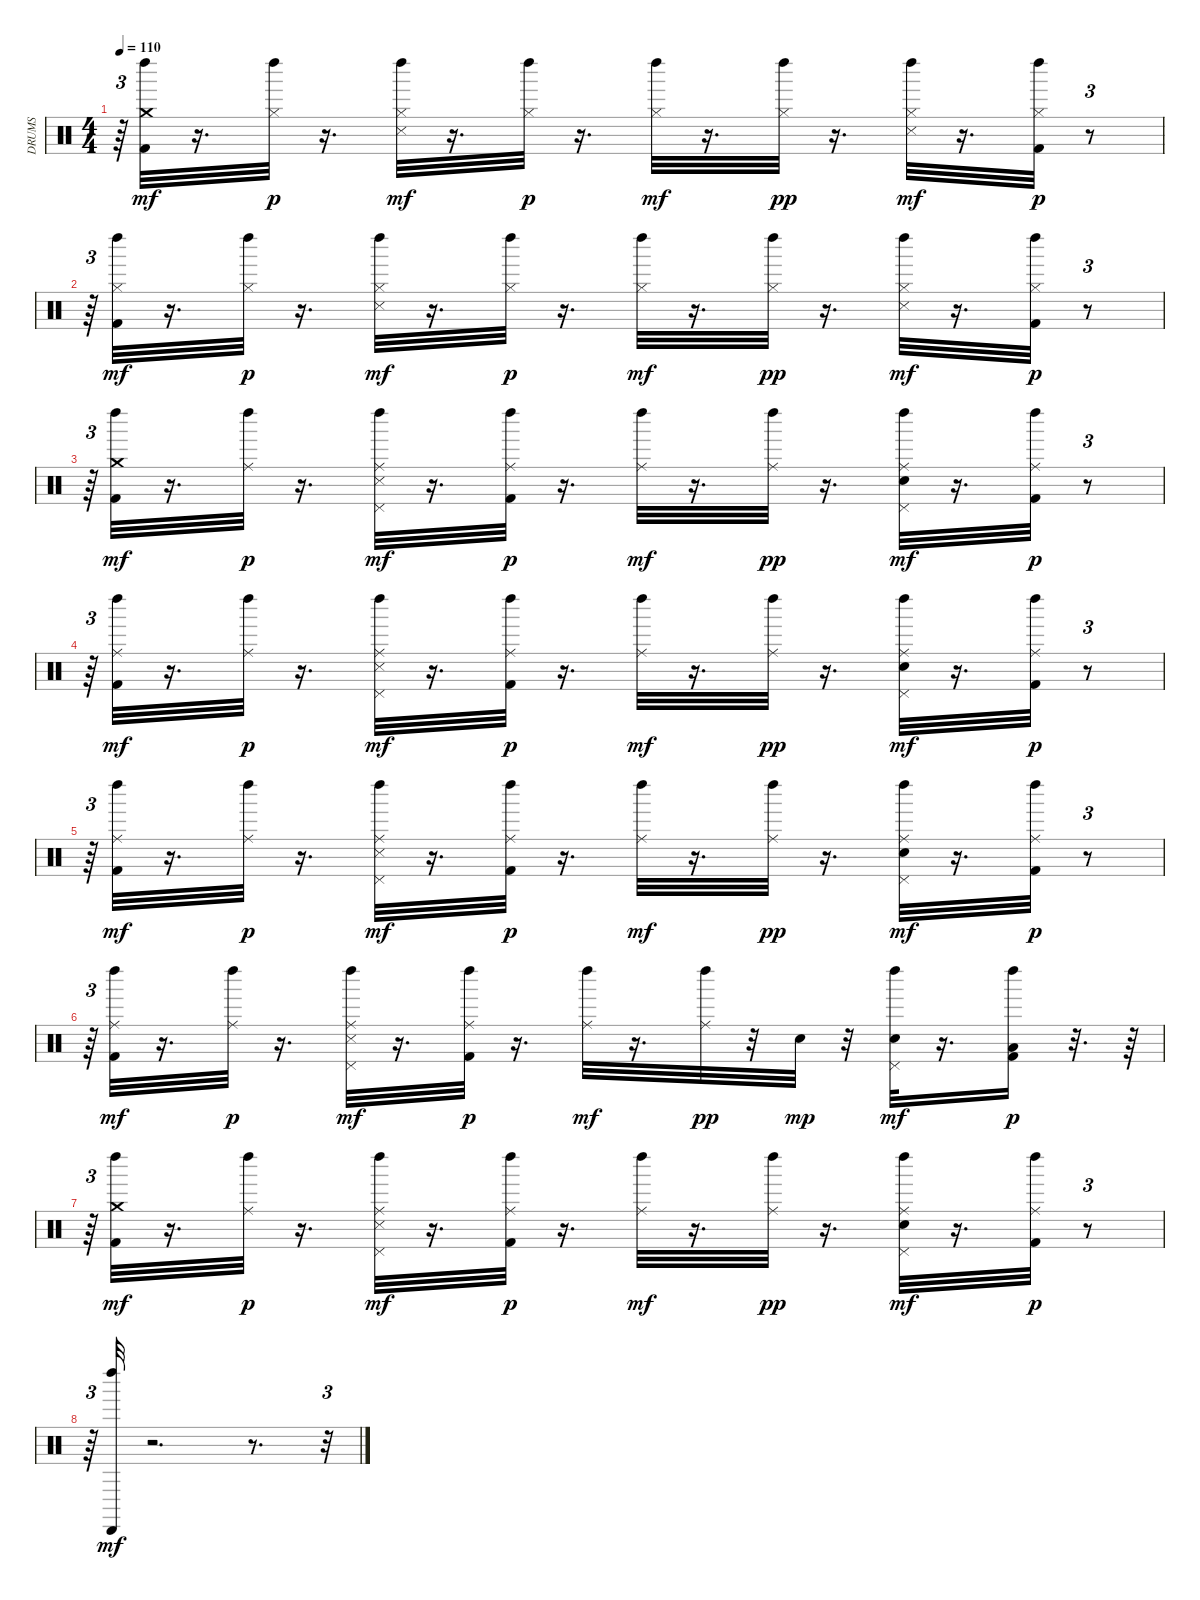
\track ("DRUMS" "DRUMS") {instrument percussion}
\staff {score}
\articulation defaults
\ts (4 4)
\tempo 110
\clef neutral
\ks c
r.64{tu (3 2) dy p} ("Kick (hit) 2" "Crash medium (hit)" "Left Maraca (hit)").32{dy mf} r.16{d} ("Hi-Hat (closed)" "Left Maraca (hit)").32{dy p} r.16{d} ("Snare (side stick) 3" "Hi-Hat (closed)" "Left Maraca (hit)").32{dy mf} r.16{d} ("Hi-Hat (closed)" "Left Maraca (hit)").32{dy p} r.16{d} ("Hi-Hat (closed)" "Left Maraca (hit)").32{dy mf} r.16{d} ("Hi-Hat (closed)" "Left Maraca (hit)").32{dy pp} r.16{d} ("Snare (side stick) 3" "Hi-Hat (closed)" "Left Maraca (hit)").32{dy mf} r.16{d} ("Kick (hit) 2" "Hi-Hat (closed)" "Left Maraca (hit)").32{dy p} r.8{tu (3 2)} |
r.64{tu (3 2)} ("Kick (hit) 2" "Hi-Hat (closed)" "Left Maraca (hit)").32{dy mf} r.16{d} ("Hi-Hat (closed)" "Left Maraca (hit)").32{dy p} r.16{d} ("Snare (side stick) 3" "Hi-Hat (closed)" "Left Maraca (hit)").32{dy mf} r.16{d} ("Hi-Hat (closed)" "Left Maraca (hit)").32{dy p} r.16{d} ("Hi-Hat (closed)" "Left Maraca (hit)").32{dy mf} r.16{d} ("Hi-Hat (closed)" "Left Maraca (hit)").32{dy pp} r.16{d} ("Snare (side stick) 3" "Hi-Hat (closed)" "Left Maraca (hit)").32{dy mf} r.16{d} ("Kick (hit) 2" "Hi-Hat (closed)" "Left Maraca (hit)").32{dy p} r.8{tu (3 2)} |
r.64{tu (3 2)} ("Kick (hit) 2" "Crash medium (hit)" "Left Maraca (hit)").32{dy mf} r.16{d} ("Ride (middle)" "Left Maraca (hit)").32{dy p} r.16{d} ("Snare (side stick) 3" "Pedal Hi-Hat (hit)" "Ride (middle)" "Left Maraca (hit)").32{dy mf} r.16{d} ("Kick (hit) 2" "Ride (middle)" "Left Maraca (hit)").32{dy p} r.16{d} ("Ride (middle)" "Left Maraca (hit)").32{dy mf} r.16{d} ("Ride (middle)" "Left Maraca (hit)").32{dy pp} r.16{d} ("Snare (hit) 2" "Pedal Hi-Hat (hit)" "Ride (middle)" "Left Maraca (hit)").32{dy mf} r.16{d} ("Kick (hit) 2" "Ride (middle)" "Left Maraca (hit)").32{dy p} r.8{tu (3 2)} |
r.64{tu (3 2)} ("Kick (hit) 2" "Ride (middle)" "Left Maraca (hit)").32{dy mf} r.16{d} ("Ride (middle)" "Left Maraca (hit)").32{dy p} r.16{d} ("Snare (side stick) 3" "Pedal Hi-Hat (hit)" "Ride (middle)" "Left Maraca (hit)").32{dy mf} r.16{d} ("Kick (hit) 2" "Ride (middle)" "Left Maraca (hit)").32{dy p} r.16{d} ("Ride (middle)" "Left Maraca (hit)").32{dy mf} r.16{d} ("Ride (middle)" "Left Maraca (hit)").32{dy pp} r.16{d} ("Snare (hit) 2" "Pedal Hi-Hat (hit)" "Ride (middle)" "Left Maraca (hit)").32{dy mf} r.16{d} ("Kick (hit) 2" "Ride (middle)" "Left Maraca (hit)").32{dy p} r.8{tu (3 2)} |
r.64{tu (3 2)} ("Kick (hit) 2" "Ride (middle)" "Left Maraca (hit)").32{dy mf} r.16{d} ("Ride (middle)" "Left Maraca (hit)").32{dy p} r.16{d} ("Snare (side stick) 3" "Pedal Hi-Hat (hit)" "Ride (middle)" "Left Maraca (hit)").32{dy mf} r.16{d} ("Kick (hit) 2" "Ride (middle)" "Left Maraca (hit)").32{dy p} r.16{d} ("Ride (middle)" "Left Maraca (hit)").32{dy mf} r.16{d} ("Ride (middle)" "Left Maraca (hit)").32{dy pp} r.16{d} ("Snare (hit) 2" "Pedal Hi-Hat (hit)" "Ride (middle)" "Left Maraca (hit)").32{dy mf} r.16{d} ("Kick (hit) 2" "Ride (middle)" "Left Maraca (hit)").32{dy p} r.8{tu (3 2)} |
r.64{tu (3 2)} ("Kick (hit) 2" "Ride (middle)" "Left Maraca (hit)").32{dy mf} r.16{d} ("Ride (middle)" "Left Maraca (hit)").32{dy p} r.16{d} ("Snare (side stick) 3" "Pedal Hi-Hat (hit)" "Ride (middle)" "Left Maraca (hit)").32{dy mf} r.16{d} ("Kick (hit) 2" "Ride (middle)" "Left Maraca (hit)").32{dy p} r.16{d} ("Ride (middle)" "Left Maraca (hit)").32{dy mf} r.16{d} ("Ride (middle)" "Left Maraca (hit)").32{dy pp} r.32 "Snare (hit) 2".32{dy mp} r.32 ("Snare (hit) 2" "Pedal Hi-Hat (hit)" "Left Maraca (hit)").32{dy mf} r.16{d} ("Kick (hit) 2" "Low Tom (hit)" "Left Maraca (hit)").16{dy p} r.32{d} r.64 |
r.64{tu (3 2)} ("Kick (hit) 2" "Crash medium (hit)" "Left Maraca (hit)").32{dy mf} r.16{d} ("Ride (middle)" "Left Maraca (hit)").32{dy p} r.16{d} ("Snare (side stick) 3" "Pedal Hi-Hat (hit)" "Ride (middle)" "Left Maraca (hit)").32{dy mf} r.16{d} ("Kick (hit) 2" "Ride (middle)" "Left Maraca (hit)").32{dy p} r.16{d} ("Ride (middle)" "Left Maraca (hit)").32{dy mf} r.16{d} ("Ride (middle)" "Left Maraca (hit)").32{dy pp} r.16{d} ("Snare (hit) 2" "Pedal Hi-Hat (hit)" "Ride (middle)" "Left Maraca (hit)").32{dy mf} r.16{d} ("Kick (hit) 2" "Ride (middle)" "Left Maraca (hit)").32{dy p} r.8{tu (3 2)} |
r.64{tu (3 2)} ("Cabasa (hit)" "Left Maraca (hit)").32{dy mf} r.2{d} r.8{d} r.32{tu (3 2)}
